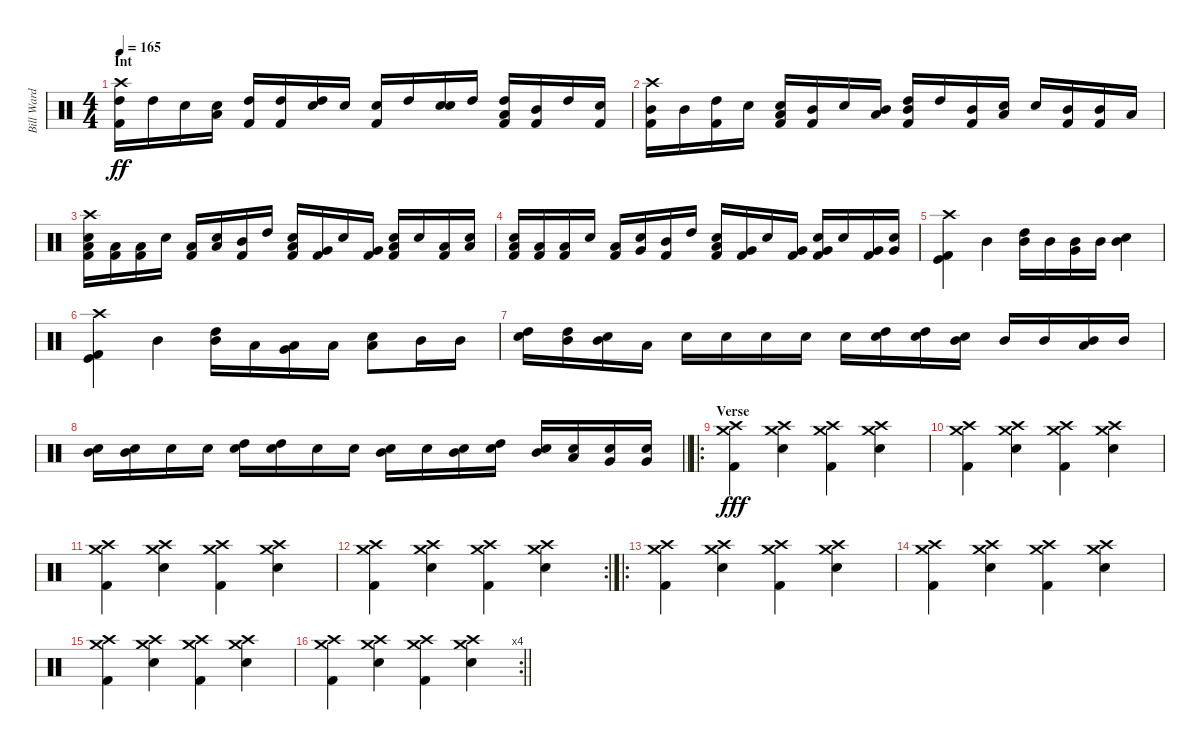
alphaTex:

\track ("Bill Ward" "Bill Ward") {instrument percussion}
\staff {score}
\articulation defaults
\ts (4 4)
\section ("" "Int ")
\tempo 165
\clef neutral
\ks c
("Crash high (hit)" "High Tom (hit)" "Kick (hit) 2").16{dy ff} "High Tom (hit)".16 "Snare (hit) 2".16 ("Snare (hit) 2" "Low Tom (hit)").16 ("High Tom (hit)" "Kick (hit) 2").16 ("High Tom (hit)" "Kick (hit) 2").16 ("High Tom (hit)" "Snare (hit) 2").16 "Snare (hit) 2".16 ("Snare (hit) 2" "Kick (hit) 2").16 "High Tom (hit)".16 ("Snare (hit) 2" "Snare (hit) 2").16 "High Tom (hit)".16 ("High Tom (hit)" "Low Tom (hit)" "Kick (hit) 2").16 ("Mid Tom (hit)" "Kick (hit) 2").16 "High Tom (hit)".16 ("Snare (hit) 2" "Kick (hit) 2").16 |
("Crash high (hit)" "Mid Tom (hit)" "Kick (hit) 2").16 "Mid Tom (hit)".16 ("High Tom (hit)" "Kick (hit) 2").16 "Snare (hit) 2".16 ("Snare (hit) 2" "Low Tom (hit)" "Kick (hit) 2").16 ("Mid Tom (hit)" "Kick (hit) 2").16 "Snare (hit) 2".16 ("Mid Tom (hit)" "Low Tom (hit)").16 ("Mid Tom (hit)" "High Tom (hit)" "Kick (hit) 2").16 "High Tom (hit)".16 ("Mid Tom (hit)" "Kick (hit) 2").16 ("Low Tom (hit)" "Snare (hit) 2").16 "Snare (hit) 2".16 ("Mid Tom (hit)" "Kick (hit) 2").16 ("Mid Tom (hit)" "Kick (hit) 2").16 "Low Tom (hit)".16 |
("Crash high (hit)" "Low Tom (hit)" "Snare (hit) 2" "Kick (hit) 2").16 ("Low Tom (hit)" "Kick (hit) 2").16 ("Low Tom (hit)" "Kick (hit) 2").16 "Snare (hit) 2".16 ("Low Tom (hit)" "Kick (hit) 2").16 ("Low Tom (hit)" "Snare (hit) 2").16 ("Mid Tom (hit)" "Kick (hit) 2").16 "High Tom (hit)".16 ("Low Tom (hit)" "Snare (hit) 2" "Kick (hit) 2").16 ("Very Low Tom (hit)" "Kick (hit) 2").16 "Snare (hit) 2".16 ("Very Low Tom (hit)" "Kick (hit) 2").16 ("Low Tom (hit)" "Snare (hit) 2" "Kick (hit) 2").16 "Snare (hit) 2".16 ("Low Tom (hit)" "Kick (hit) 2").16 ("Low Tom (hit)" "Snare (hit) 2").16 |
("Low Tom (hit)" "Snare (hit) 2" "Kick (hit) 2").16 ("Low Tom (hit)" "Kick (hit) 2").16 ("Low Tom (hit)" "Kick (hit) 2").16 "Snare (hit) 2".16 ("Low Tom (hit)" "Kick (hit) 2").16 ("Very Low Tom (hit)" "Snare (hit) 2").16 ("Mid Tom (hit)" "Kick (hit) 2").16 "High Tom (hit)".16 ("Low Tom (hit)" "Snare (hit) 2" "Kick (hit) 2").16 ("Very Low Tom (hit)" "Kick (hit) 2").16 "Snare (hit) 2".16 ("Very Low Tom (hit)" "Kick (hit) 2").16 ("Very Low Tom (hit)" "Snare (hit) 2" "Kick (hit) 2").16 "Snare (hit) 2".16 ("Very Low Tom (hit)" "Kick (hit) 2").16 ("Very Low Tom (hit)" "Snare (hit) 2").16 |
("Crash high (hit)" "Kick (hit)" "Kick (hit) 2").4 "Mid Tom (hit)".4 ("High Tom (hit)" "Mid Tom (hit)").16 "Mid Tom (hit)".16 ("Very Low Tom (hit)" "Mid Tom (hit)").16 "Mid Tom (hit)".16 ("Snare (hit) 2" "Mid Tom (hit)").4 |
("Crash high (hit)" "Kick (hit)" "Kick (hit) 2").4 "Mid Tom (hit)".4 ("High Tom (hit)" "Mid Tom (hit)").16 "Low Tom (hit)".16 ("Very Low Tom (hit)" "Low Tom (hit)").16 "Low Tom (hit)".16 ("Snare (hit) 2" "Low Tom (hit)").8 "Mid Tom (hit)".16 "Mid Tom (hit)".16 |
("High Tom (hit)" "Snare (hit) 2").16 ("High Tom (hit)" "Mid Tom (hit)").16 ("Mid Tom (hit)" "Snare (hit) 2").16 "Low Tom (hit)".16 "Snare (hit) 2".16 "Snare (hit) 2".16 "Electric Snare (hit)".16 "Electric Snare (hit)".16 "Snare (hit) 2".16 ("High Tom (hit)" "Electric Snare (hit)").16 ("High Tom (hit)" "Snare (hit) 2").16 ("Mid Tom (hit)" "Snare (hit) 2").16 "Mid Tom (hit)".16 "Mid Tom (hit)".16 ("Mid Tom (hit)" "Low Tom (hit)").16 "Mid Tom (hit)".16 |
\barLineRight lightlight
("Mid Tom (hit)" "Snare (hit) 2").16 ("Mid Tom (hit)" "Snare (hit) 2").16 "Snare (hit) 2".16 "Electric Snare (hit)".16 ("High Tom (hit)" "Electric Snare (hit)").16 ("High Tom (hit)" "Snare (hit) 2").16 "Electric Snare (hit)".16 "Snare (hit) 2".16 ("Mid Tom (hit)" "Snare (hit) 2").16 "Electric Snare (hit)".16 ("Mid Tom (hit)" "Snare (hit) 2").16 ("High Tom (hit)" "Snare (hit) 2").16 ("Mid Tom (hit)" "Electric Snare (hit)").16 ("Low Tom (hit)" "Snare (hit) 2").16 ("Very Low Tom (hit)" "Snare (hit) 2").16 ("Very Low Tom (hit)" "Snare (hit) 2").16 |
\ro
\section ("" "Verse")
("Crash high (hit)" "Crash medium (hit)" "Kick (hit) 2").4{dy fff} ("Crash high (hit)" "Crash medium (hit)" "Snare (hit) 2").4 ("Crash high (hit)" "Crash medium (hit)" "Kick (hit) 2").4 ("Crash high (hit)" "Crash medium (hit)" "Snare (hit) 2").4 |
("Crash high (hit)" "Crash medium (hit)" "Kick (hit) 2").4 ("Crash high (hit)" "Crash medium (hit)" "Snare (hit) 2").4 ("Crash high (hit)" "Crash medium (hit)" "Kick (hit) 2").4 ("Crash high (hit)" "Crash medium (hit)" "Snare (hit) 2").4 |
("Crash high (hit)" "Crash medium (hit)" "Kick (hit) 2").4 ("Crash high (hit)" "Crash medium (hit)" "Snare (hit) 2").4 ("Crash high (hit)" "Crash medium (hit)" "Kick (hit) 2").4 ("Crash high (hit)" "Crash medium (hit)" "Snare (hit) 2").4 |
\rc 2
("Crash high (hit)" "Crash medium (hit)" "Kick (hit) 2").4 ("Crash high (hit)" "Crash medium (hit)" "Snare (hit) 2").4 ("Crash high (hit)" "Crash medium (hit)" "Kick (hit) 2").4 ("Crash high (hit)" "Crash medium (hit)" "Snare (hit) 2").4 |
\ro
("Crash high (hit)" "Crash medium (hit)" "Kick (hit) 2").4 ("Crash high (hit)" "Crash medium (hit)" "Snare (hit) 2").4 ("Crash high (hit)" "Crash medium (hit)" "Kick (hit) 2").4 ("Crash high (hit)" "Crash medium (hit)" "Snare (hit) 2").4 |
("Crash high (hit)" "Crash medium (hit)" "Kick (hit) 2").4 ("Crash high (hit)" "Crash medium (hit)" "Snare (hit) 2").4 ("Crash high (hit)" "Crash medium (hit)" "Kick (hit) 2").4 ("Crash high (hit)" "Crash medium (hit)" "Snare (hit) 2").4 |
("Crash high (hit)" "Crash medium (hit)" "Kick (hit) 2").4 ("Crash high (hit)" "Crash medium (hit)" "Snare (hit) 2").4 ("Crash high (hit)" "Crash medium (hit)" "Kick (hit) 2").4 ("Crash high (hit)" "Crash medium (hit)" "Snare (hit) 2").4 |
\rc 4
\barLineRight lightlight
("Crash high (hit)" "Crash medium (hit)" "Kick (hit) 2").4 ("Crash high (hit)" "Crash medium (hit)" "Snare (hit) 2").4 ("Crash high (hit)" "Crash medium (hit)" "Kick (hit) 2").4 ("Crash high (hit)" "Crash medium (hit)" "Snare (hit) 2").4
